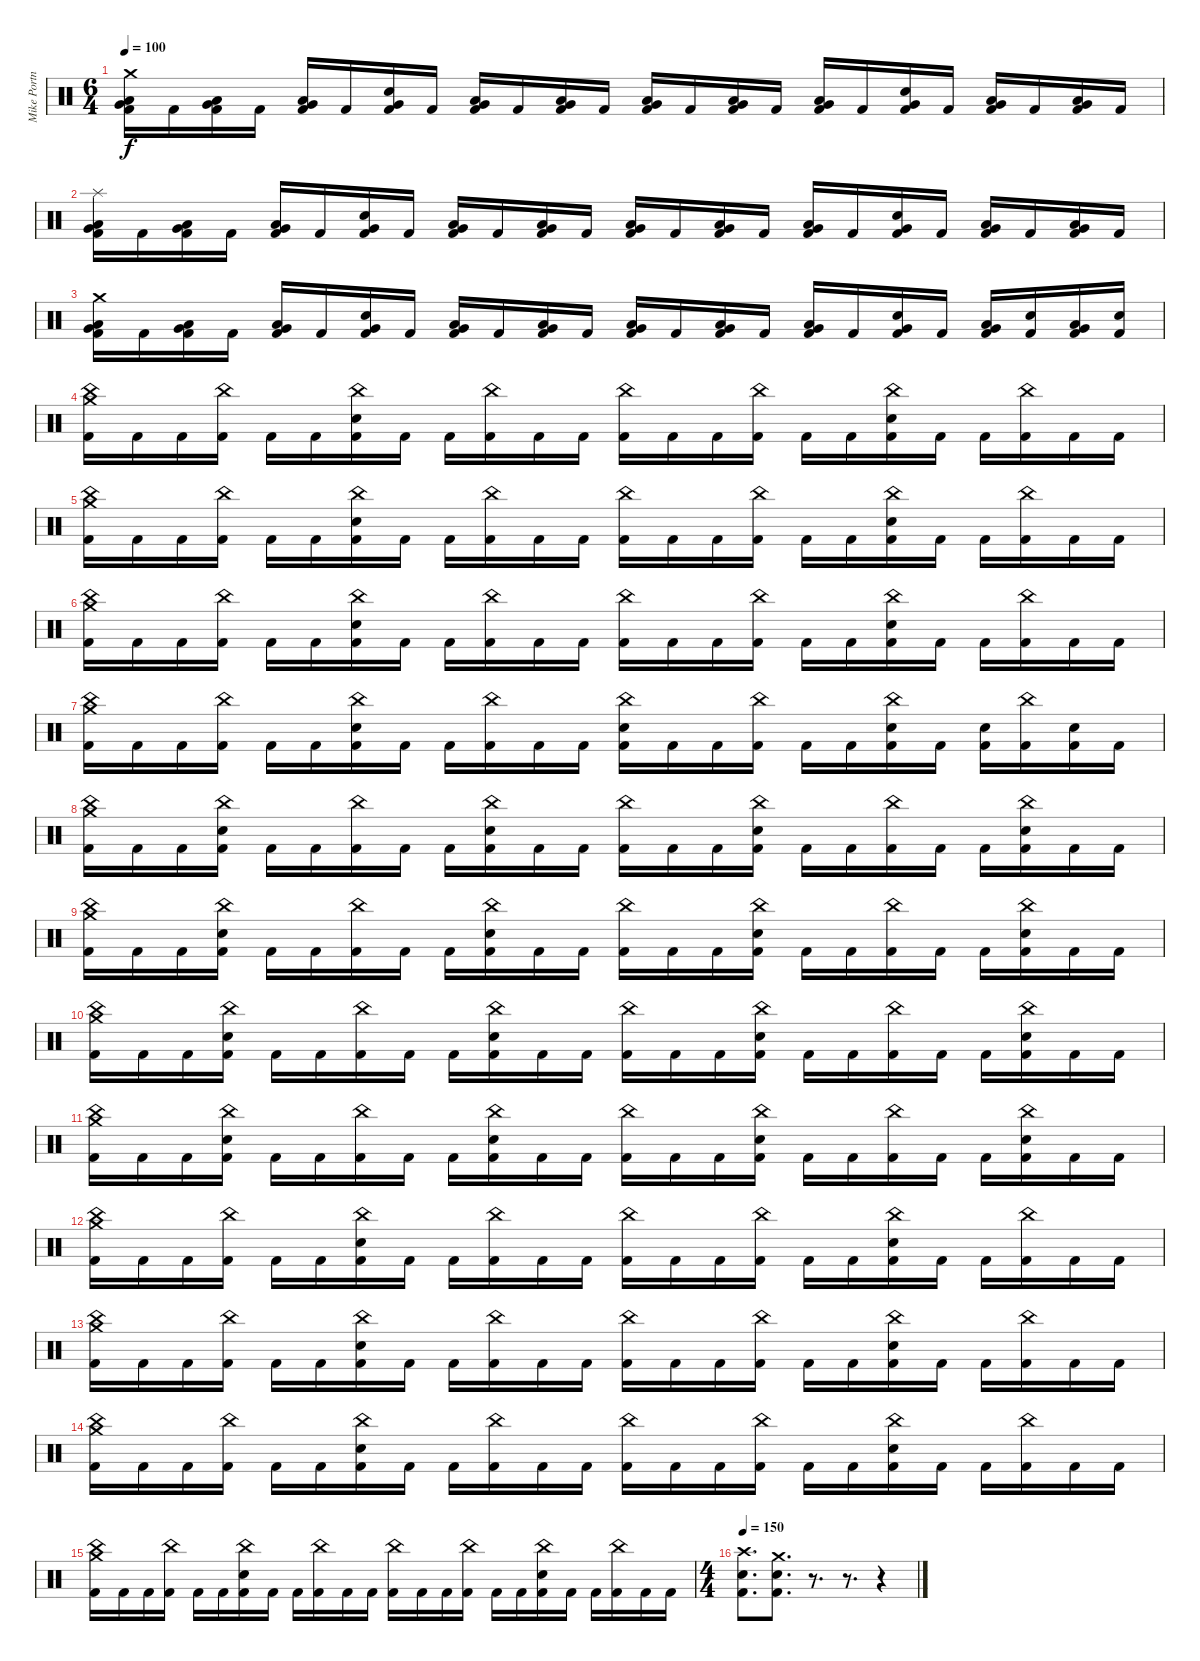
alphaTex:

\track ("Mike Portnoy" "Mike Portn") {instrument percussion}
\staff {score}
\articulation defaults
\ts (6 4)
\tempo 100
\clef neutral
\ks c
("Kick (hit) 2" "Very Low Tom (hit)" "Low Floor Tom (hit)" "Crash medium (hit)").16{dy f} "Kick (hit) 2".16 ("Kick (hit) 2" "Very Low Tom (hit)" "Low Floor Tom (hit)").16 "Kick (hit) 2".16 ("Kick (hit) 2" "Very Low Tom (hit)" "Low Floor Tom (hit)").16 "Kick (hit) 2".16 ("Kick (hit) 2" "Snare (hit) 2" "Very Low Tom (hit)").16 "Kick (hit) 2".16 ("Kick (hit) 2" "Low Floor Tom (hit)" "Very Low Tom (hit)").16 "Kick (hit) 2".16 ("Kick (hit) 2" "Low Floor Tom (hit)" "Very Low Tom (hit)").16 "Kick (hit) 2".16 ("Kick (hit) 2" "Very Low Tom (hit)" "Low Floor Tom (hit)").16 "Kick (hit) 2".16 ("Kick (hit) 2" "Very Low Tom (hit)" "Low Floor Tom (hit)").16 "Kick (hit) 2".16 ("Kick (hit) 2" "Very Low Tom (hit)" "Low Floor Tom (hit)").16 "Kick (hit) 2".16 ("Kick (hit) 2" "Snare (hit) 2" "Very Low Tom (hit)").16 "Kick (hit) 2".16 ("Kick (hit) 2" "Low Floor Tom (hit)" "Very Low Tom (hit)").16 "Kick (hit) 2".16 ("Kick (hit) 2" "Low Floor Tom (hit)" "Very Low Tom (hit)").16 "Kick (hit) 2".16 |
("Kick (hit) 2" "Very Low Tom (hit)" "Low Floor Tom (hit)" "Splash (hit)").16 "Kick (hit) 2".16 ("Kick (hit) 2" "Very Low Tom (hit)" "Low Floor Tom (hit)").16 "Kick (hit) 2".16 ("Kick (hit) 2" "Very Low Tom (hit)" "Low Floor Tom (hit)").16 "Kick (hit) 2".16 ("Kick (hit) 2" "Snare (hit) 2" "Very Low Tom (hit)").16 "Kick (hit) 2".16 ("Kick (hit) 2" "Low Floor Tom (hit)" "Very Low Tom (hit)").16 "Kick (hit) 2".16 ("Kick (hit) 2" "Low Floor Tom (hit)" "Very Low Tom (hit)").16 "Kick (hit) 2".16 ("Kick (hit) 2" "Very Low Tom (hit)" "Low Floor Tom (hit)").16 "Kick (hit) 2".16 ("Kick (hit) 2" "Very Low Tom (hit)" "Low Floor Tom (hit)").16 "Kick (hit) 2".16 ("Kick (hit) 2" "Very Low Tom (hit)" "Low Floor Tom (hit)").16 "Kick (hit) 2".16 ("Kick (hit) 2" "Snare (hit) 2" "Very Low Tom (hit)").16 "Kick (hit) 2".16 ("Kick (hit) 2" "Low Floor Tom (hit)" "Very Low Tom (hit)").16 "Kick (hit) 2".16 ("Kick (hit) 2" "Low Floor Tom (hit)" "Very Low Tom (hit)").16 "Kick (hit) 2".16 |
("Kick (hit) 2" "Very Low Tom (hit)" "Low Floor Tom (hit)" "Crash medium (hit)").16 "Kick (hit) 2".16 ("Kick (hit) 2" "Very Low Tom (hit)" "Low Floor Tom (hit)").16 "Kick (hit) 2".16 ("Kick (hit) 2" "Very Low Tom (hit)" "Low Floor Tom (hit)").16 "Kick (hit) 2".16 ("Kick (hit) 2" "Snare (hit) 2" "Very Low Tom (hit)").16 "Kick (hit) 2".16 ("Kick (hit) 2" "Low Floor Tom (hit)" "Very Low Tom (hit)").16 "Kick (hit) 2".16 ("Kick (hit) 2" "Low Floor Tom (hit)" "Very Low Tom (hit)").16 "Kick (hit) 2".16 ("Kick (hit) 2" "Very Low Tom (hit)" "Low Floor Tom (hit)").16 "Kick (hit) 2".16 ("Kick (hit) 2" "Very Low Tom (hit)" "Low Floor Tom (hit)").16 "Kick (hit) 2".16 ("Kick (hit) 2" "Very Low Tom (hit)" "Low Floor Tom (hit)").16 "Kick (hit) 2".16 ("Kick (hit) 2" "Snare (hit) 2" "Very Low Tom (hit)").16 "Kick (hit) 2".16 ("Kick (hit) 2" "Low Floor Tom (hit)" "Very Low Tom (hit)").16 ("Kick (hit) 2" "Snare (hit) 2").16 ("Kick (hit) 2" "Low Floor Tom (hit)" "Very Low Tom (hit)").16 ("Kick (hit) 2" "Snare (hit) 2").16 |
("Kick (hit) 2" "China (hit)" "Crash medium (hit)").16 "Kick (hit) 2".16 "Kick (hit) 2".16 ("Kick (hit) 2" "China (hit)").16 "Kick (hit) 2".16 "Kick (hit) 2".16 ("Kick (hit) 2" "Snare (hit) 2" "China (hit)").16 "Kick (hit) 2".16 "Kick (hit) 2".16 ("Kick (hit) 2" "China (hit)").16 "Kick (hit) 2".16 "Kick (hit) 2".16 ("Kick (hit) 2" "China (hit)").16 "Kick (hit) 2".16 "Kick (hit) 2".16 ("Kick (hit) 2" "China (hit)").16 "Kick (hit) 2".16 "Kick (hit) 2".16 ("Kick (hit) 2" "Snare (hit) 2" "China (hit)").16 "Kick (hit) 2".16 "Kick (hit) 2".16 ("Kick (hit) 2" "China (hit)").16 "Kick (hit) 2".16 "Kick (hit) 2".16 |
("Kick (hit) 2" "China (hit)" "Crash medium (hit)").16 "Kick (hit) 2".16 "Kick (hit) 2".16 ("Kick (hit) 2" "China (hit)").16 "Kick (hit) 2".16 "Kick (hit) 2".16 ("Kick (hit) 2" "Snare (hit) 2" "China (hit)").16 "Kick (hit) 2".16 "Kick (hit) 2".16 ("Kick (hit) 2" "China (hit)").16 "Kick (hit) 2".16 "Kick (hit) 2".16 ("Kick (hit) 2" "China (hit)").16 "Kick (hit) 2".16 "Kick (hit) 2".16 ("Kick (hit) 2" "China (hit)").16 "Kick (hit) 2".16 "Kick (hit) 2".16 ("Kick (hit) 2" "Snare (hit) 2" "China (hit)").16 "Kick (hit) 2".16 "Kick (hit) 2".16 ("Kick (hit) 2" "China (hit)").16 "Kick (hit) 2".16 "Kick (hit) 2".16 |
("Kick (hit) 2" "China (hit)" "Crash medium (hit)").16 "Kick (hit) 2".16 "Kick (hit) 2".16 ("Kick (hit) 2" "China (hit)").16 "Kick (hit) 2".16 "Kick (hit) 2".16 ("Kick (hit) 2" "Snare (hit) 2" "China (hit)").16 "Kick (hit) 2".16 "Kick (hit) 2".16 ("Kick (hit) 2" "China (hit)").16 "Kick (hit) 2".16 "Kick (hit) 2".16 ("Kick (hit) 2" "China (hit)").16 "Kick (hit) 2".16 "Kick (hit) 2".16 ("Kick (hit) 2" "China (hit)").16 "Kick (hit) 2".16 "Kick (hit) 2".16 ("Kick (hit) 2" "Snare (hit) 2" "China (hit)").16 "Kick (hit) 2".16 "Kick (hit) 2".16 ("Kick (hit) 2" "China (hit)").16 "Kick (hit) 2".16 "Kick (hit) 2".16 |
("Kick (hit) 2" "China (hit)" "Crash medium (hit)").16 "Kick (hit) 2".16 "Kick (hit) 2".16 ("Kick (hit) 2" "China (hit)").16 "Kick (hit) 2".16 "Kick (hit) 2".16 ("Kick (hit) 2" "Snare (hit) 2" "China (hit)").16 "Kick (hit) 2".16 "Kick (hit) 2".16 ("Kick (hit) 2" "China (hit)").16 "Kick (hit) 2".16 "Kick (hit) 2".16 ("Kick (hit) 2" "Snare (hit) 2" "China (hit)").16 "Kick (hit) 2".16 "Kick (hit) 2".16 ("Kick (hit) 2" "China (hit)").16 "Kick (hit) 2".16 "Kick (hit) 2".16 ("Kick (hit) 2" "Snare (hit) 2" "China (hit)").16 "Kick (hit) 2".16 ("Kick (hit) 2" "Snare (hit) 2").16 ("Kick (hit) 2" "China (hit)").16 ("Kick (hit) 2" "Snare (hit) 2").16 "Kick (hit) 2".16 |
("Kick (hit) 2" "China (hit)" "Crash medium (hit)").16 "Kick (hit) 2".16 "Kick (hit) 2".16 ("Kick (hit) 2" "Snare (hit) 2" "China (hit)").16 "Kick (hit) 2".16 "Kick (hit) 2".16 ("Kick (hit) 2" "China (hit)").16 "Kick (hit) 2".16 "Kick (hit) 2".16 ("Kick (hit) 2" "Snare (hit) 2" "China (hit)").16 "Kick (hit) 2".16 "Kick (hit) 2".16 ("Kick (hit) 2" "China (hit)").16 "Kick (hit) 2".16 "Kick (hit) 2".16 ("Kick (hit) 2" "Snare (hit) 2" "China (hit)").16 "Kick (hit) 2".16 "Kick (hit) 2".16 ("Kick (hit) 2" "China (hit)").16 "Kick (hit) 2".16 "Kick (hit) 2".16 ("Kick (hit) 2" "Snare (hit) 2" "China (hit)").16 "Kick (hit) 2".16 "Kick (hit) 2".16 |
("Kick (hit) 2" "China (hit)" "Crash medium (hit)").16 "Kick (hit) 2".16 "Kick (hit) 2".16 ("Kick (hit) 2" "Snare (hit) 2" "China (hit)").16 "Kick (hit) 2".16 "Kick (hit) 2".16 ("Kick (hit) 2" "China (hit)").16 "Kick (hit) 2".16 "Kick (hit) 2".16 ("Kick (hit) 2" "Snare (hit) 2" "China (hit)").16 "Kick (hit) 2".16 "Kick (hit) 2".16 ("Kick (hit) 2" "China (hit)").16 "Kick (hit) 2".16 "Kick (hit) 2".16 ("Kick (hit) 2" "Snare (hit) 2" "China (hit)").16 "Kick (hit) 2".16 "Kick (hit) 2".16 ("Kick (hit) 2" "China (hit)").16 "Kick (hit) 2".16 "Kick (hit) 2".16 ("Kick (hit) 2" "Snare (hit) 2" "China (hit)").16 "Kick (hit) 2".16 "Kick (hit) 2".16 |
("Kick (hit) 2" "China (hit)" "Crash medium (hit)").16 "Kick (hit) 2".16 "Kick (hit) 2".16 ("Kick (hit) 2" "Snare (hit) 2" "China (hit)").16 "Kick (hit) 2".16 "Kick (hit) 2".16 ("Kick (hit) 2" "China (hit)").16 "Kick (hit) 2".16 "Kick (hit) 2".16 ("Kick (hit) 2" "Snare (hit) 2" "China (hit)").16 "Kick (hit) 2".16 "Kick (hit) 2".16 ("Kick (hit) 2" "China (hit)").16 "Kick (hit) 2".16 "Kick (hit) 2".16 ("Kick (hit) 2" "Snare (hit) 2" "China (hit)").16 "Kick (hit) 2".16 "Kick (hit) 2".16 ("Kick (hit) 2" "China (hit)").16 "Kick (hit) 2".16 "Kick (hit) 2".16 ("Kick (hit) 2" "Snare (hit) 2" "China (hit)").16 "Kick (hit) 2".16 "Kick (hit) 2".16 |
("Kick (hit) 2" "China (hit)" "Crash medium (hit)").16 "Kick (hit) 2".16 "Kick (hit) 2".16 ("Kick (hit) 2" "Snare (hit) 2" "China (hit)").16 "Kick (hit) 2".16 "Kick (hit) 2".16 ("Kick (hit) 2" "China (hit)").16 "Kick (hit) 2".16 "Kick (hit) 2".16 ("Kick (hit) 2" "Snare (hit) 2" "China (hit)").16 "Kick (hit) 2".16 "Kick (hit) 2".16 ("Kick (hit) 2" "China (hit)").16 "Kick (hit) 2".16 "Kick (hit) 2".16 ("Kick (hit) 2" "Snare (hit) 2" "China (hit)").16 "Kick (hit) 2".16 "Kick (hit) 2".16 ("Kick (hit) 2" "China (hit)").16 "Kick (hit) 2".16 "Kick (hit) 2".16 ("Kick (hit) 2" "Snare (hit) 2" "China (hit)").16 "Kick (hit) 2".16 "Kick (hit) 2".16 |
("Kick (hit) 2" "China (hit)" "Crash medium (hit)").16 "Kick (hit) 2".16 "Kick (hit) 2".16 ("Kick (hit) 2" "China (hit)").16 "Kick (hit) 2".16 "Kick (hit) 2".16 ("Kick (hit) 2" "Snare (hit) 2" "China (hit)").16 "Kick (hit) 2".16 "Kick (hit) 2".16 ("Kick (hit) 2" "China (hit)").16 "Kick (hit) 2".16 "Kick (hit) 2".16 ("Kick (hit) 2" "China (hit)").16 "Kick (hit) 2".16 "Kick (hit) 2".16 ("Kick (hit) 2" "China (hit)").16 "Kick (hit) 2".16 "Kick (hit) 2".16 ("Kick (hit) 2" "Snare (hit) 2" "China (hit)").16 "Kick (hit) 2".16 "Kick (hit) 2".16 ("Kick (hit) 2" "China (hit)").16 "Kick (hit) 2".16 "Kick (hit) 2".16 |
("Kick (hit) 2" "China (hit)" "Crash medium (hit)").16 "Kick (hit) 2".16 "Kick (hit) 2".16 ("Kick (hit) 2" "China (hit)").16 "Kick (hit) 2".16 "Kick (hit) 2".16 ("Kick (hit) 2" "Snare (hit) 2" "China (hit)").16 "Kick (hit) 2".16 "Kick (hit) 2".16 ("Kick (hit) 2" "China (hit)").16 "Kick (hit) 2".16 "Kick (hit) 2".16 ("Kick (hit) 2" "China (hit)").16 "Kick (hit) 2".16 "Kick (hit) 2".16 ("Kick (hit) 2" "China (hit)").16 "Kick (hit) 2".16 "Kick (hit) 2".16 ("Kick (hit) 2" "Snare (hit) 2" "China (hit)").16 "Kick (hit) 2".16 "Kick (hit) 2".16 ("Kick (hit) 2" "China (hit)").16 "Kick (hit) 2".16 "Kick (hit) 2".16 |
("Kick (hit) 2" "China (hit)" "Crash medium (hit)").16 "Kick (hit) 2".16 "Kick (hit) 2".16 ("Kick (hit) 2" "China (hit)").16 "Kick (hit) 2".16 "Kick (hit) 2".16 ("Kick (hit) 2" "Snare (hit) 2" "China (hit)").16 "Kick (hit) 2".16 "Kick (hit) 2".16 ("Kick (hit) 2" "China (hit)").16 "Kick (hit) 2".16 "Kick (hit) 2".16 ("Kick (hit) 2" "China (hit)").16 "Kick (hit) 2".16 "Kick (hit) 2".16 ("Kick (hit) 2" "China (hit)").16 "Kick (hit) 2".16 "Kick (hit) 2".16 ("Kick (hit) 2" "Snare (hit) 2" "China (hit)").16 "Kick (hit) 2".16 "Kick (hit) 2".16 ("Kick (hit) 2" "China (hit)").16 "Kick (hit) 2".16 "Kick (hit) 2".16 |
("Kick (hit) 2" "China (hit)" "Crash medium (hit)").16 "Kick (hit) 2".16 "Kick (hit) 2".16 ("Kick (hit) 2" "China (hit)").16 "Kick (hit) 2".16 "Kick (hit) 2".16 ("Kick (hit) 2" "Snare (hit) 2" "China (hit)").16 "Kick (hit) 2".16 "Kick (hit) 2".16 ("Kick (hit) 2" "China (hit)").16 "Kick (hit) 2".16 "Kick (hit) 2".16 ("Kick (hit) 2" "China (hit)").16 "Kick (hit) 2".16 "Kick (hit) 2".16 ("Kick (hit) 2" "China (hit)").16 "Kick (hit) 2".16 "Kick (hit) 2".16 ("Kick (hit) 2" "Snare (hit) 2" "China (hit)").16 "Kick (hit) 2".16 "Kick (hit) 2".16 ("Kick (hit) 2" "China (hit)").16 "Kick (hit) 2".16 "Kick (hit) 2".16 |
\ts (4 4)
\tempo 150
("Crash high (hit)" "Snare (hit) 2" "Kick (hit) 2").8{d} ("Crash medium (hit)" "Snare (hit) 2" "Kick (hit) 2").8{d} r.8{d} r.8{d} r.4
